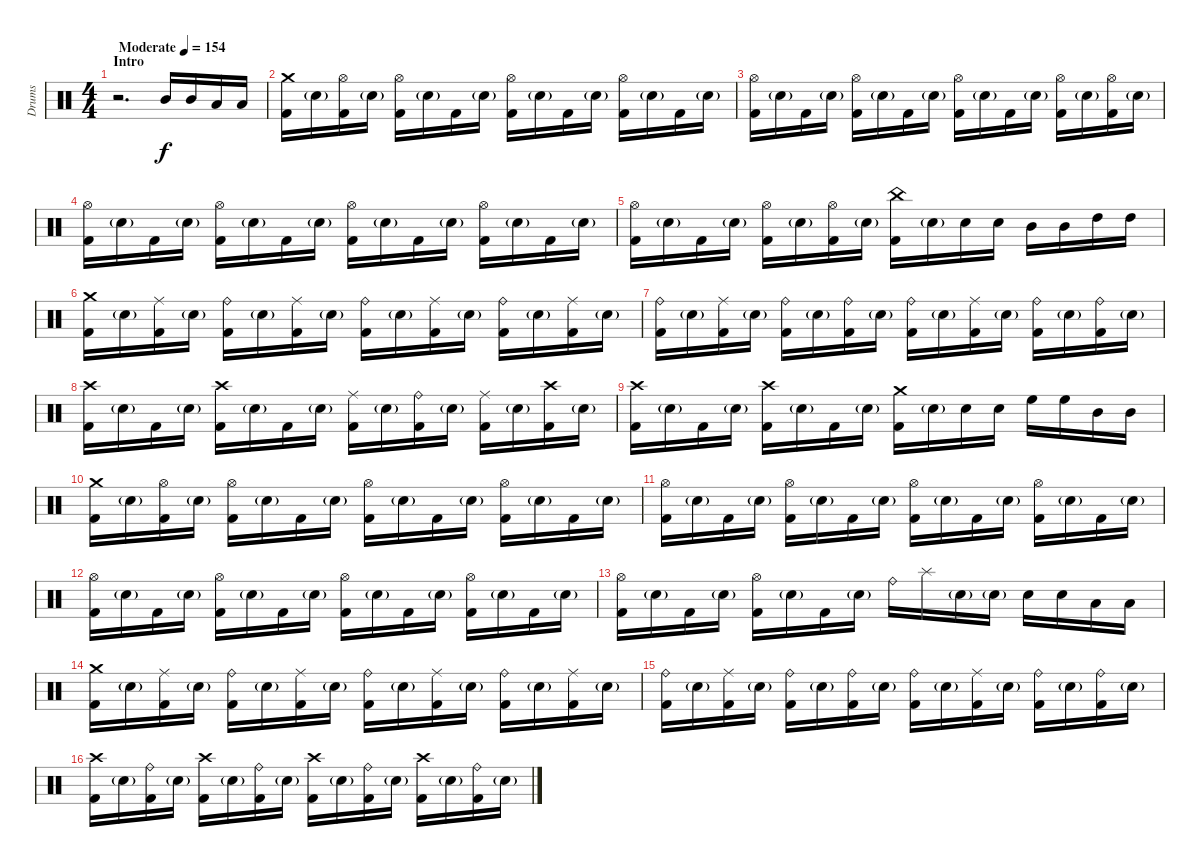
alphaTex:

\track ("Drums" "Drums") {instrument percussion}
\staff {score}
\articulation defaults
\ts (4 4)
\section ("" "Intro")
\tempo (154 "Moderate")
\clef neutral
\ks c
r.2{d dy f} "Mid Tom (hit)".16 "Mid Tom (hit)".16 "Low Tom (hit)".16 "Low Tom (hit)".16 |
("Crash medium (hit)" "Kick (hit) 2").16 "Snare (hit) 2"{g}.16 ("Hi-Hat (open)" "Kick (hit) 2").16 "Snare (hit) 2"{g}.16 ("Hi-Hat (open)" "Kick (hit) 2").16 "Snare (hit) 2"{g}.16 "Kick (hit) 2".16 "Snare (hit) 2"{g}.16 ("Hi-Hat (open)" "Kick (hit) 2").16 "Snare (hit) 2"{g}.16 "Kick (hit) 2".16 "Snare (hit) 2"{g}.16 ("Hi-Hat (open)" "Kick (hit) 2").16 "Snare (hit) 2"{g}.16 "Kick (hit) 2".16 "Snare (hit) 2"{g}.16 |
("Hi-Hat (open)" "Kick (hit) 2").16 "Snare (hit) 2"{g}.16 "Kick (hit) 2".16 "Snare (hit) 2"{g}.16 ("Hi-Hat (open)" "Kick (hit) 2").16 "Snare (hit) 2"{g}.16 "Kick (hit) 2".16 "Snare (hit) 2"{g}.16 ("Hi-Hat (open)" "Kick (hit) 2").16 "Snare (hit) 2"{g}.16 "Kick (hit) 2".16 "Snare (hit) 2"{g}.16 ("Hi-Hat (open)" "Kick (hit) 2").16 "Snare (hit) 2"{g}.16 ("Hi-Hat (open)" "Kick (hit) 2").16 "Snare (hit) 2"{g}.16 |
("Hi-Hat (open)" "Kick (hit) 2").16 "Snare (hit) 2"{g}.16 "Kick (hit) 2".16 "Snare (hit) 2"{g}.16 ("Hi-Hat (open)" "Kick (hit) 2").16 "Snare (hit) 2"{g}.16 "Kick (hit) 2".16 "Snare (hit) 2"{g}.16 ("Hi-Hat (open)" "Kick (hit) 2").16 "Snare (hit) 2"{g}.16 "Kick (hit) 2".16 "Snare (hit) 2"{g}.16 ("Hi-Hat (open)" "Kick (hit) 2").16 "Snare (hit) 2"{g}.16 "Kick (hit) 2".16 "Snare (hit) 2"{g}.16 |
("Hi-Hat (open)" "Kick (hit) 2").16 "Snare (hit) 2"{g}.16 "Kick (hit) 2".16 "Snare (hit) 2"{g}.16 ("Hi-Hat (open)" "Kick (hit) 2").16 "Snare (hit) 2"{g}.16 ("Hi-Hat (open)" "Kick (hit) 2").16 "Snare (hit) 2"{g}.16 ("China (hit)" "Kick (hit) 2").16 "Snare (hit) 2"{g}.16 "Snare (hit) 2".16 "Snare (hit) 2".16 "Mid Tom (hit)".16 "Mid Tom (hit)".16 "High Tom (hit)".16 "High Tom (hit)".16 |
("Crash medium (hit)" "Kick (hit) 2").16 "Snare (hit) 2"{g}.16 ("Ride (middle)" "Kick (hit) 2").16 "Snare (hit) 2"{g}.16 ("Ride (bell)" "Kick (hit) 2").16 "Snare (hit) 2"{g}.16 ("Ride (middle)" "Kick (hit) 2").16 "Snare (hit) 2"{g}.16 ("Ride (bell)" "Kick (hit) 2").16 "Snare (hit) 2"{g}.16 ("Ride (middle)" "Kick (hit) 2").16 "Snare (hit) 2"{g}.16 ("Ride (bell)" "Kick (hit) 2").16 "Snare (hit) 2"{g}.16 ("Ride (middle)" "Kick (hit) 2").16 "Snare (hit) 2"{g}.16 |
("Ride (bell)" "Kick (hit) 2").16 "Snare (hit) 2"{g}.16 ("Ride (middle)" "Kick (hit) 2").16 "Snare (hit) 2"{g}.16 ("Ride (bell)" "Kick (hit) 2").16 "Snare (hit) 2"{g}.16 ("Ride (bell)" "Kick (hit) 2").16 "Snare (hit) 2"{g}.16 ("Ride (bell)" "Kick (hit) 2").16 "Snare (hit) 2"{g}.16 ("Ride (middle)" "Kick (hit) 2").16 "Snare (hit) 2"{g}.16 ("Ride (bell)" "Kick (hit) 2").16 "Snare (hit) 2"{g}.16 ("Ride (bell)" "Kick (hit) 2").16 "Snare (hit) 2"{g}.16 |
("Crash high (hit)" "Kick (hit) 2").16 "Snare (hit) 2"{g}.16 "Kick (hit) 2".16 "Snare (hit) 2"{g}.16 ("Crash high (hit)" "Kick (hit) 2").16 "Snare (hit) 2"{g}.16 "Kick (hit) 2".16 "Snare (hit) 2"{g}.16 ("Ride (middle)" "Kick (hit) 2").16 "Snare (hit) 2"{g}.16 ("Ride (bell)" "Kick (hit) 2").16 "Snare (hit) 2"{g}.16 ("Ride (middle)" "Kick (hit) 2").16 "Snare (hit) 2"{g}.16 ("Crash high (hit)" "Kick (hit) 2").16 "Snare (hit) 2"{g}.16 |
("Crash high (hit)" "Kick (hit) 2").16 "Snare (hit) 2"{g}.16 "Kick (hit) 2".16 "Snare (hit) 2"{g}.16 ("Crash high (hit)" "Kick (hit) 2").16 "Snare (hit) 2"{g}.16 "Kick (hit) 2".16 "Snare (hit) 2"{g}.16 ("Crash medium (hit)" "Kick (hit) 2").16 "Snare (hit) 2"{g}.16 "Snare (hit) 2".16 "Snare (hit) 2".16 "High Floor Tom (hit)".16 "High Floor Tom (hit)".16 "Mid Tom (hit)".16 "Mid Tom (hit)".16 |
("Crash medium (hit)" "Kick (hit) 2").16 "Snare (hit) 2"{g}.16 ("Hi-Hat (open)" "Kick (hit) 2").16 "Snare (hit) 2"{g}.16 ("Hi-Hat (open)" "Kick (hit) 2").16 "Snare (hit) 2"{g}.16 "Kick (hit) 2".16 "Snare (hit) 2"{g}.16 ("Hi-Hat (open)" "Kick (hit) 2").16 "Snare (hit) 2"{g}.16 "Kick (hit) 2".16 "Snare (hit) 2"{g}.16 ("Hi-Hat (open)" "Kick (hit) 2").16 "Snare (hit) 2"{g}.16 "Kick (hit) 2".16 "Snare (hit) 2"{g}.16 |
("Hi-Hat (open)" "Kick (hit) 2").16 "Snare (hit) 2"{g}.16 "Kick (hit) 2".16 "Snare (hit) 2"{g}.16 ("Hi-Hat (open)" "Kick (hit) 2").16 "Snare (hit) 2"{g}.16 "Kick (hit) 2".16 "Snare (hit) 2"{g}.16 ("Hi-Hat (open)" "Kick (hit) 2").16 "Snare (hit) 2"{g}.16 "Kick (hit) 2".16 "Snare (hit) 2"{g}.16 ("Hi-Hat (open)" "Kick (hit) 2").16 "Snare (hit) 2"{g}.16 "Kick (hit) 2".16 "Snare (hit) 2"{g}.16 |
("Hi-Hat (open)" "Kick (hit) 2").16 "Snare (hit) 2"{g}.16 "Kick (hit) 2".16 "Snare (hit) 2"{g}.16 ("Hi-Hat (open)" "Kick (hit) 2").16 "Snare (hit) 2"{g}.16 "Kick (hit) 2".16 "Snare (hit) 2"{g}.16 ("Hi-Hat (open)" "Kick (hit) 2").16 "Snare (hit) 2"{g}.16 "Kick (hit) 2".16 "Snare (hit) 2"{g}.16 ("Hi-Hat (open)" "Kick (hit) 2").16 "Snare (hit) 2"{g}.16 "Kick (hit) 2".16 "Snare (hit) 2"{g}.16 |
("Hi-Hat (open)" "Kick (hit) 2").16 "Snare (hit) 2"{g}.16 "Kick (hit) 2".16 "Snare (hit) 2"{g}.16 ("Hi-Hat (open)" "Kick (hit) 2").16 "Snare (hit) 2"{g}.16 "Kick (hit) 2".16 "Snare (hit) 2"{g}.16 "Ride (bell)".16 "Splash (hit)".16 "Snare (hit) 2"{g}.16 "Snare (hit) 2"{g}.16 "Snare (hit) 2".16 "Snare (hit) 2".16 "Low Tom (hit)".16 "Low Tom (hit)".16 |
("Crash medium (hit)" "Kick (hit) 2").16 "Snare (hit) 2"{g}.16 ("Ride (middle)" "Kick (hit) 2").16 "Snare (hit) 2"{g}.16 ("Ride (bell)" "Kick (hit) 2").16 "Snare (hit) 2"{g}.16 ("Ride (middle)" "Kick (hit) 2").16 "Snare (hit) 2"{g}.16 ("Ride (bell)" "Kick (hit) 2").16 "Snare (hit) 2"{g}.16 ("Ride (middle)" "Kick (hit) 2").16 "Snare (hit) 2"{g}.16 ("Ride (bell)" "Kick (hit) 2").16 "Snare (hit) 2"{g}.16 ("Ride (middle)" "Kick (hit) 2").16 "Snare (hit) 2"{g}.16 |
("Ride (bell)" "Kick (hit) 2").16 "Snare (hit) 2"{g}.16 ("Ride (middle)" "Kick (hit) 2").16 "Snare (hit) 2"{g}.16 ("Ride (bell)" "Kick (hit) 2").16 "Snare (hit) 2"{g}.16 ("Ride (bell)" "Kick (hit) 2").16 "Snare (hit) 2"{g}.16 ("Ride (bell)" "Kick (hit) 2").16 "Snare (hit) 2"{g}.16 ("Ride (middle)" "Kick (hit) 2").16 "Snare (hit) 2"{g}.16 ("Ride (bell)" "Kick (hit) 2").16 "Snare (hit) 2"{g}.16 ("Ride (bell)" "Kick (hit) 2").16 "Snare (hit) 2"{g}.16 |
("Crash high (hit)" "Kick (hit) 2").16 "Snare (hit) 2"{g}.16 ("Ride (bell)" "Kick (hit) 2").16 "Snare (hit) 2"{g}.16 ("Crash high (hit)" "Kick (hit) 2").16 "Snare (hit) 2"{g}.16 ("Ride (bell)" "Kick (hit) 2").16 "Snare (hit) 2"{g}.16 ("Crash high (hit)" "Kick (hit) 2").16 "Snare (hit) 2"{g}.16 ("Ride (bell)" "Kick (hit) 2").16 "Snare (hit) 2"{g}.16 ("Crash high (hit)" "Kick (hit) 2").16 "Snare (hit) 2"{g}.16 ("Ride (bell)" "Kick (hit) 2").16 "Snare (hit) 2"{g}.16
